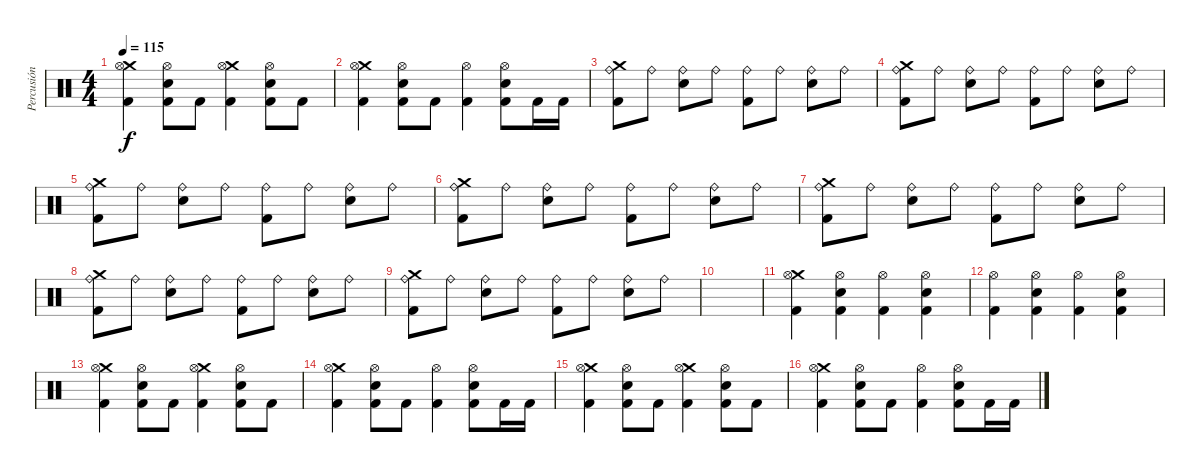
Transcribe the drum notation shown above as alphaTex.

\track ("Percusión" "Percusión") {instrument percussion}
\staff {score}
\articulation defaults
\ts (4 4)
\tempo 115
\clef neutral
\ks c
("Crash medium (hit)" "Hi-Hat (open)" "Kick (hit) 2").4{dy f} ("Hi-Hat (open)" "Snare (hit) 2" "Kick (hit) 2").8 "Kick (hit) 2".8 ("Crash medium (hit)" "Hi-Hat (open)" "Kick (hit) 2").4 ("Hi-Hat (open)" "Snare (hit) 2" "Kick (hit) 2").8 "Kick (hit) 2".8 |
("Crash medium (hit)" "Hi-Hat (open)" "Kick (hit) 2").4 ("Hi-Hat (open)" "Snare (hit) 2" "Kick (hit) 2").8 "Kick (hit) 2".8 ("Hi-Hat (open)" "Kick (hit) 2").4 ("Hi-Hat (open)" "Snare (hit) 2" "Kick (hit) 2").8 "Kick (hit) 2".16 "Kick (hit) 2".16 |
("Ride (bell)" "Crash medium (hit)" "Kick (hit) 2").8 "Ride (bell)".8 ("Ride (bell)" "Snare (hit) 2").8 "Ride (bell)".8 ("Ride (bell)" "Kick (hit) 2").8 "Ride (bell)".8 ("Ride (bell)" "Snare (hit) 2").8 "Ride (bell)".8 |
("Ride (bell)" "Crash medium (hit)" "Kick (hit) 2").8 "Ride (bell)".8 ("Ride (bell)" "Snare (hit) 2").8 "Ride (bell)".8 ("Ride (bell)" "Kick (hit) 2").8 "Ride (bell)".8 ("Ride (bell)" "Snare (hit) 2").8 "Ride (bell)".8 |
("Ride (bell)" "Crash medium (hit)" "Kick (hit) 2").8 "Ride (bell)".8 ("Ride (bell)" "Snare (hit) 2").8 "Ride (bell)".8 ("Ride (bell)" "Kick (hit) 2").8 "Ride (bell)".8 ("Ride (bell)" "Snare (hit) 2").8 "Ride (bell)".8 |
("Ride (bell)" "Crash medium (hit)" "Kick (hit) 2").8 "Ride (bell)".8 ("Ride (bell)" "Snare (hit) 2").8 "Ride (bell)".8 ("Ride (bell)" "Kick (hit) 2").8 "Ride (bell)".8 ("Ride (bell)" "Snare (hit) 2").8 "Ride (bell)".8 |
("Ride (bell)" "Crash medium (hit)" "Kick (hit) 2").8 "Ride (bell)".8 ("Ride (bell)" "Snare (hit) 2").8 "Ride (bell)".8 ("Ride (bell)" "Kick (hit) 2").8 "Ride (bell)".8 ("Ride (bell)" "Snare (hit) 2").8 "Ride (bell)".8 |
("Ride (bell)" "Crash medium (hit)" "Kick (hit) 2").8 "Ride (bell)".8 ("Ride (bell)" "Snare (hit) 2").8 "Ride (bell)".8 ("Ride (bell)" "Kick (hit) 2").8 "Ride (bell)".8 ("Ride (bell)" "Snare (hit) 2").8 "Ride (bell)".8 |
("Ride (bell)" "Crash medium (hit)" "Kick (hit) 2").8 "Ride (bell)".8 ("Ride (bell)" "Snare (hit) 2").8 "Ride (bell)".8 ("Ride (bell)" "Kick (hit) 2").8 "Ride (bell)".8 ("Ride (bell)" "Snare (hit) 2").8 "Ride (bell)".8 |
|
("Crash medium (hit)" "Hi-Hat (open)" "Kick (hit) 2").4 ("Hi-Hat (open)" "Snare (hit) 2" "Kick (hit) 2").4 ("Hi-Hat (open)" "Kick (hit) 2").4 ("Hi-Hat (open)" "Snare (hit) 2" "Kick (hit) 2").4 |
("Hi-Hat (open)" "Kick (hit) 2").4 ("Hi-Hat (open)" "Snare (hit) 2" "Kick (hit) 2").4 ("Hi-Hat (open)" "Kick (hit) 2").4 ("Hi-Hat (open)" "Snare (hit) 2" "Kick (hit) 2").4 |
("Crash medium (hit)" "Hi-Hat (open)" "Kick (hit) 2").4 ("Hi-Hat (open)" "Snare (hit) 2" "Kick (hit) 2").8 "Kick (hit) 2".8 ("Crash medium (hit)" "Hi-Hat (open)" "Kick (hit) 2").4 ("Hi-Hat (open)" "Snare (hit) 2" "Kick (hit) 2").8 "Kick (hit) 2".8 |
("Crash medium (hit)" "Hi-Hat (open)" "Kick (hit) 2").4 ("Hi-Hat (open)" "Snare (hit) 2" "Kick (hit) 2").8 "Kick (hit) 2".8 ("Hi-Hat (open)" "Kick (hit) 2").4 ("Hi-Hat (open)" "Snare (hit) 2" "Kick (hit) 2").8 "Kick (hit) 2".16 "Kick (hit) 2".16 |
("Crash medium (hit)" "Hi-Hat (open)" "Kick (hit) 2").4 ("Hi-Hat (open)" "Snare (hit) 2" "Kick (hit) 2").8 "Kick (hit) 2".8 ("Crash medium (hit)" "Hi-Hat (open)" "Kick (hit) 2").4 ("Hi-Hat (open)" "Snare (hit) 2" "Kick (hit) 2").8 "Kick (hit) 2".8 |
("Crash medium (hit)" "Hi-Hat (open)" "Kick (hit) 2").4 ("Hi-Hat (open)" "Snare (hit) 2" "Kick (hit) 2").8 "Kick (hit) 2".8 ("Hi-Hat (open)" "Kick (hit) 2").4 ("Hi-Hat (open)" "Snare (hit) 2" "Kick (hit) 2").8 "Kick (hit) 2".16 "Kick (hit) 2".16
